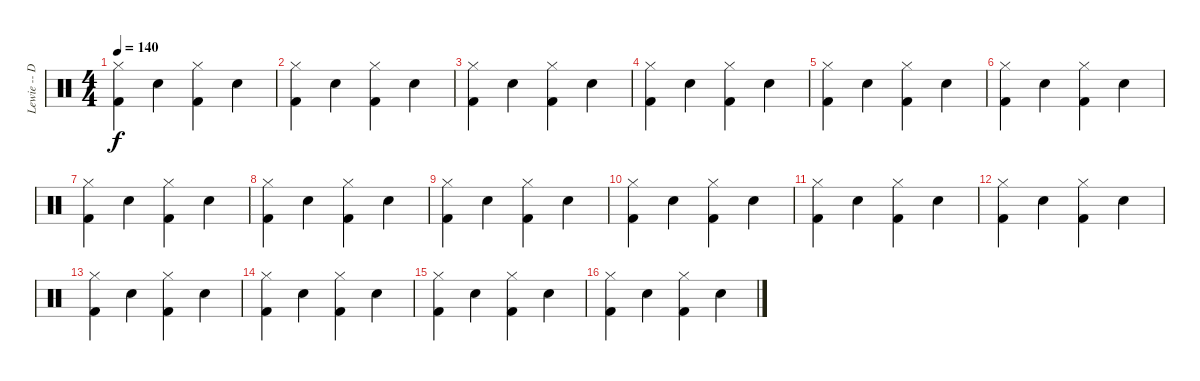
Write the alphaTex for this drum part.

\track ("Lewie -- Drums" "Lewie -- D") {instrument percussion}
\staff {score}
\articulation defaults
\ts (4 4)
\tempo 140
\clef neutral
\ks c
("Hi-Hat (closed)" "Kick (hit) 2").4{dy f} "Electric Snare (hit)".4 ("Hi-Hat (closed)" "Kick (hit) 2").4 "Electric Snare (hit)".4 |
("Hi-Hat (closed)" "Kick (hit) 2").4 "Electric Snare (hit)".4 ("Hi-Hat (closed)" "Kick (hit) 2").4 "Electric Snare (hit)".4 |
("Hi-Hat (closed)" "Kick (hit) 2").4 "Electric Snare (hit)".4 ("Hi-Hat (closed)" "Kick (hit) 2").4 "Electric Snare (hit)".4 |
("Hi-Hat (closed)" "Kick (hit) 2").4 "Electric Snare (hit)".4 ("Hi-Hat (closed)" "Kick (hit) 2").4 "Electric Snare (hit)".4 |
("Hi-Hat (closed)" "Kick (hit) 2").4 "Electric Snare (hit)".4 ("Hi-Hat (closed)" "Kick (hit) 2").4 "Electric Snare (hit)".4 |
("Hi-Hat (closed)" "Kick (hit) 2").4 "Electric Snare (hit)".4 ("Hi-Hat (closed)" "Kick (hit) 2").4 "Electric Snare (hit)".4 |
("Hi-Hat (closed)" "Kick (hit) 2").4 "Electric Snare (hit)".4 ("Hi-Hat (closed)" "Kick (hit) 2").4 "Electric Snare (hit)".4 |
("Hi-Hat (closed)" "Kick (hit) 2").4 "Electric Snare (hit)".4 ("Hi-Hat (closed)" "Kick (hit) 2").4 "Electric Snare (hit)".4 |
("Hi-Hat (closed)" "Kick (hit) 2").4 "Electric Snare (hit)".4 ("Hi-Hat (closed)" "Kick (hit) 2").4 "Electric Snare (hit)".4 |
("Hi-Hat (closed)" "Kick (hit) 2").4 "Electric Snare (hit)".4 ("Hi-Hat (closed)" "Kick (hit) 2").4 "Electric Snare (hit)".4 |
("Hi-Hat (closed)" "Kick (hit) 2").4 "Electric Snare (hit)".4 ("Hi-Hat (closed)" "Kick (hit) 2").4 "Electric Snare (hit)".4 |
("Hi-Hat (closed)" "Kick (hit) 2").4 "Electric Snare (hit)".4 ("Hi-Hat (closed)" "Kick (hit) 2").4 "Electric Snare (hit)".4 |
("Hi-Hat (closed)" "Kick (hit) 2").4 "Electric Snare (hit)".4 ("Hi-Hat (closed)" "Kick (hit) 2").4 "Electric Snare (hit)".4 |
("Hi-Hat (closed)" "Kick (hit) 2").4 "Electric Snare (hit)".4 ("Hi-Hat (closed)" "Kick (hit) 2").4 "Electric Snare (hit)".4 |
("Hi-Hat (closed)" "Kick (hit) 2").4 "Electric Snare (hit)".4 ("Hi-Hat (closed)" "Kick (hit) 2").4 "Electric Snare (hit)".4 |
("Hi-Hat (closed)" "Kick (hit) 2").4 "Electric Snare (hit)".4 ("Hi-Hat (closed)" "Kick (hit) 2").4 "Electric Snare (hit)".4
